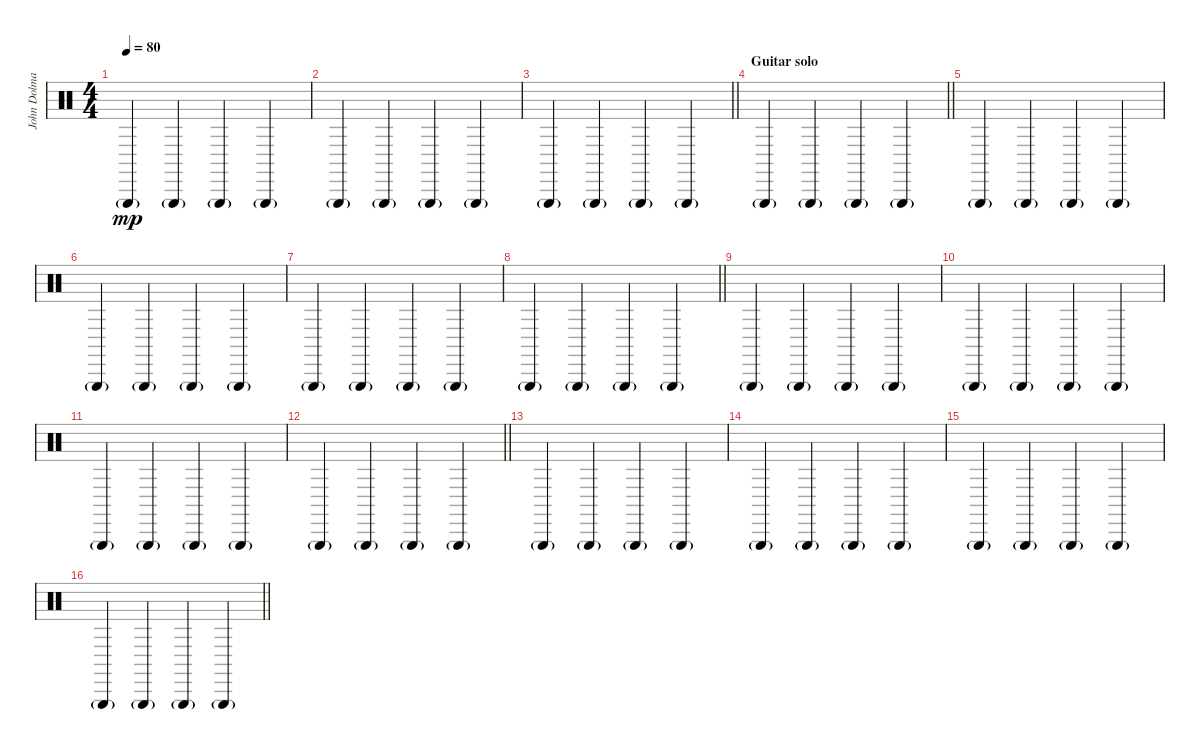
\track ("John Dolmayan (extra)" "John Dolma") {instrument percussion}
\staff
\articulation defaults
\ts (4 4)
\tempo 80
\clef neutral
\ks c "Triangle (hit)"{g}.4{dy mp} "Triangle (hit)"{g}.4 "Triangle (hit)"{g}.4 "Triangle (hit)"{g}.4
|
"Triangle (hit)"{g}.4 "Triangle (hit)"{g}.4 "Triangle (hit)"{g}.4 "Triangle (hit)"{g}.4 |
\barLineRight lightlight "Triangle (hit)"{g}.4 "Triangle (hit)"{g}.4 "Triangle (hit)"{g}.4 "Triangle (hit)"{g}.4
|
\section ("" "Guitar solo")
\barLineRight lightlight "Triangle (hit)"{g}.4 "Triangle (hit)"{g}.4 "Triangle (hit)"{g}.4 "Triangle (hit)"{g}.4
|
"Triangle (hit)"{g}.4 "Triangle (hit)"{g}.4 "Triangle (hit)"{g}.4 "Triangle (hit)"{g}.4 |
"Triangle (hit)"{g}.4 "Triangle (hit)"{g}.4 "Triangle (hit)"{g}.4 "Triangle (hit)"{g}.4 |
"Triangle (hit)"{g}.4 "Triangle (hit)"{g}.4 "Triangle (hit)"{g}.4 "Triangle (hit)"{g}.4 |
\barLineRight lightlight "Triangle (hit)"{g}.4 "Triangle (hit)"{g}.4 "Triangle (hit)"{g}.4 "Triangle (hit)"{g}.4
|
"Triangle (hit)"{g}.4 "Triangle (hit)"{g}.4 "Triangle (hit)"{g}.4 "Triangle (hit)"{g}.4 |
"Triangle (hit)"{g}.4 "Triangle (hit)"{g}.4 "Triangle (hit)"{g}.4 "Triangle (hit)"{g}.4 |
"Triangle (hit)"{g}.4 "Triangle (hit)"{g}.4 "Triangle (hit)"{g}.4 "Triangle (hit)"{g}.4 |
\barLineRight lightlight "Triangle (hit)"{g}.4 "Triangle (hit)"{g}.4 "Triangle (hit)"{g}.4 "Triangle (hit)"{g}.4
|
"Triangle (hit)"{g}.4 "Triangle (hit)"{g}.4 "Triangle (hit)"{g}.4 "Triangle (hit)"{g}.4 |
"Triangle (hit)"{g}.4 "Triangle (hit)"{g}.4 "Triangle (hit)"{g}.4 "Triangle (hit)"{g}.4 |
"Triangle (hit)"{g}.4 "Triangle (hit)"{g}.4 "Triangle (hit)"{g}.4 "Triangle (hit)"{g}.4 |
\barLineRight lightlight "Triangle (hit)"{g}.4 "Triangle (hit)"{g}.4 "Triangle (hit)"{g}.4 "Triangle (hit)"{g}.4
